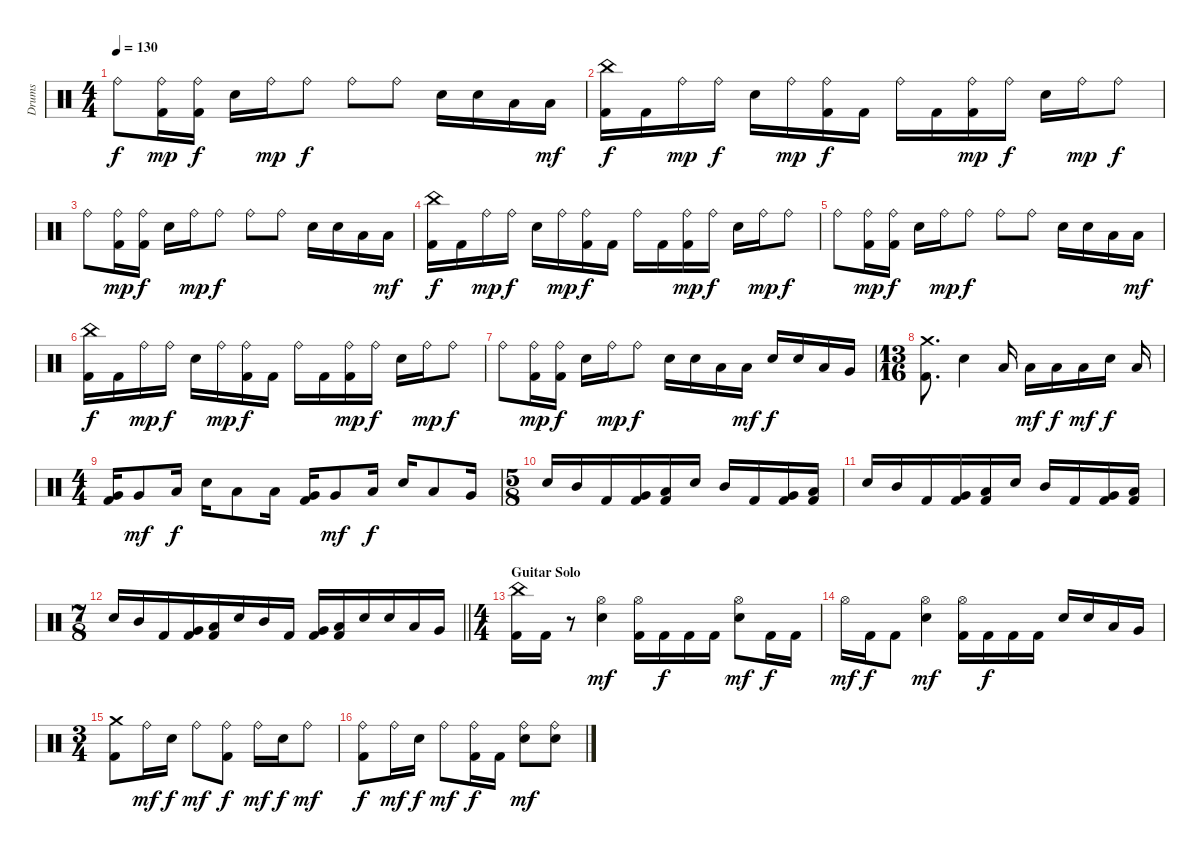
\track ("Drums" "Drums") {instrument percussion}
\staff {score}
\articulation defaults
\ts (4 4)
\tempo 130
\clef neutral
\ks c "Ride (bell)".8{dy f}
("Kick (hit) 2" "Ride (bell)").16{dy mp} ("Kick (hit) 2" "Ride (bell)").16{dy f} "Electric Snare (hit)".16 "Ride (bell)".16{dy mp} "Ride (bell)".8{dy f} "Ride (bell)".8 "Ride (bell)".8 "Electric Snare (hit)".16 "Electric Snare (hit)".16 "Low Tom (hit)".16 "Low Tom (hit)".16{dy mf} |
("Kick (hit) 2" "China (hit)").16{dy f} "Kick (hit) 2".16 "Ride (bell)".16{dy mp} "Ride (bell)".16{dy f} "Electric Snare (hit)".16 "Ride (bell)".16{dy mp} ("Kick (hit) 2" "Ride (bell)").16{dy f} "Kick (hit) 2".16 "Ride (bell)".16 "Kick (hit) 2".16 ("Kick (hit) 2" "Ride (bell)").16{dy mp} "Ride (bell)".16{dy f} "Electric Snare (hit)".16 "Ride (bell)".16{dy mp} "Ride (bell)".8{dy f} |
"Ride (bell)".8 ("Kick (hit) 2" "Ride (bell)").16{dy mp} ("Kick (hit) 2" "Ride (bell)").16{dy f} "Electric Snare (hit)".16 "Ride (bell)".16{dy mp} "Ride (bell)".8{dy f} "Ride (bell)".8 "Ride (bell)".8 "Electric Snare (hit)".16 "Electric Snare (hit)".16 "Low Tom (hit)".16 "Low Tom (hit)".16{dy mf} |
("Kick (hit) 2" "China (hit)").16{dy f} "Kick (hit) 2".16 "Ride (bell)".16{dy mp} "Ride (bell)".16{dy f} "Electric Snare (hit)".16 "Ride (bell)".16{dy mp} ("Kick (hit) 2" "Ride (bell)").16{dy f} "Kick (hit) 2".16 "Ride (bell)".16 "Kick (hit) 2".16 ("Kick (hit) 2" "Ride (bell)").16{dy mp} "Ride (bell)".16{dy f} "Electric Snare (hit)".16 "Ride (bell)".16{dy mp} "Ride (bell)".8{dy f} |
"Ride (bell)".8 ("Kick (hit) 2" "Ride (bell)").16{dy mp} ("Kick (hit) 2" "Ride (bell)").16{dy f} "Electric Snare (hit)".16 "Ride (bell)".16{dy mp} "Ride (bell)".8{dy f} "Ride (bell)".8 "Ride (bell)".8 "Electric Snare (hit)".16 "Electric Snare (hit)".16 "Low Tom (hit)".16 "Low Tom (hit)".16{dy mf} |
("Kick (hit) 2" "China (hit)").16{dy f} "Kick (hit) 2".16 "Ride (bell)".16{dy mp} "Ride (bell)".16{dy f} "Electric Snare (hit)".16 "Ride (bell)".16{dy mp} ("Kick (hit) 2" "Ride (bell)").16{dy f} "Kick (hit) 2".16 "Ride (bell)".16 "Kick (hit) 2".16 ("Kick (hit) 2" "Ride (bell)").16{dy mp} "Ride (bell)".16{dy f} "Electric Snare (hit)".16 "Ride (bell)".16{dy mp} "Ride (bell)".8{dy f} |
"Ride (bell)".8 ("Kick (hit) 2" "Ride (bell)").16{dy mp} ("Kick (hit) 2" "Ride (bell)").16{dy f} "Electric Snare (hit)".16 "Ride (bell)".16{dy mp} "Ride (bell)".8{dy f} "Electric Snare (hit)".16 "Electric Snare (hit)".16 "Low Tom (hit)".16 "Low Tom (hit)".16{dy mf} "Electric Snare (hit)".16{dy f} "Electric Snare (hit)".16 "Low Tom (hit)".16 "Very Low Tom (hit)".16 |
\ts (13 16)
("Kick (hit) 2" "Crash medium (hit)").8{d} "Electric Snare (hit)".4 "Low Tom (hit)".16 "Low Tom (hit)".16{dy mf} "Low Tom (hit)".16{dy f} "Low Tom (hit)".16{dy mf} "Electric Snare (hit)".16{dy f} "Low Tom (hit)".16 |
\ts (4 4)
("Kick (hit) 2" "Very Low Tom (hit)").16 "Very Low Tom (hit)".8{dy mf} "Low Tom (hit)".16{dy f} "Electric Snare (hit)".16 "Low Tom (hit)".8 "Low Tom (hit)".16 ("Kick (hit) 2" "Very Low Tom (hit)").16 "Very Low Tom (hit)".8{dy mf} "Low Tom (hit)".16{dy f} "Electric Snare (hit)".16 "Low Tom (hit)".8 "Very Low Tom (hit)".16 |
\ts (5 8)
"Electric Snare (hit)".16 "Mid Tom (hit)".16 "Kick (hit) 2".16 ("Kick (hit) 2" "Very Low Tom (hit)").16 ("Kick (hit) 2" "Low Floor Tom (hit)").16 "Electric Snare (hit)".16 "Mid Tom (hit)".16 "Kick (hit) 2".16 ("Kick (hit) 2" "Very Low Tom (hit)").16 ("Kick (hit) 2" "Low Floor Tom (hit)").16 |
"Electric Snare (hit)".16 "Mid Tom (hit)".16 "Kick (hit) 2".16 ("Kick (hit) 2" "Very Low Tom (hit)").16 ("Kick (hit) 2" "Low Floor Tom (hit)").16 "Electric Snare (hit)".16 "Mid Tom (hit)".16 "Kick (hit) 2".16 ("Kick (hit) 2" "Very Low Tom (hit)").16 ("Kick (hit) 2" "Low Floor Tom (hit)").16 |
\ts (7 8)
\barLineRight lightlight "Electric Snare (hit)".16 "Mid Tom (hit)".16 "Kick (hit) 2".16
("Kick (hit) 2" "Very Low Tom (hit)").16 ("Kick (hit) 2" "Low Floor Tom (hit)").16 "Electric Snare (hit)".16 "Mid Tom (hit)".16 "Kick (hit) 2".16 ("Kick (hit) 2" "Very Low Tom (hit)").16 ("Kick (hit) 2" "Low Floor Tom (hit)").16 "Electric Snare (hit)".16 "Electric Snare (hit)".16 "Low Tom (hit)".16 "Very Low Tom (hit)".16 |
\ts (4 4)
\section ("" "Guitar Solo")
("Kick (hit) 2" "China (hit)").16 "Kick (hit) 2".16 r.8 ("Hi-Hat (open)" "Electric Snare (hit)").4{dy mf} ("Kick (hit) 2" "Hi-Hat (open)").16 "Kick (hit) 2".16{dy f} "Kick (hit) 2".16 "Kick (hit) 2".16 ("Hi-Hat (open)" "Electric Snare (hit)").8{dy mf} "Kick (hit) 2".16{dy f} "Kick (hit) 2".16 |
"Hi-Hat (open)".16{dy mf} "Kick (hit) 2".16{dy f} "Kick (hit) 2".8 ("Hi-Hat (open)" "Electric Snare (hit)").4{dy mf} ("Kick (hit) 2" "Hi-Hat (open)").16 "Kick (hit) 2".16{dy f} "Kick (hit) 2".16 "Kick (hit) 2".16 "Electric Snare (hit)".16 "Electric Snare (hit)".16 "Low Tom (hit)".16 "Very Low Tom (hit)".16 |
\ts (3 4)
("Kick (hit) 2" "Crash medium (hit)").8 "Ride (bell)".16{dy mf} "Electric Snare (hit)".16{dy f} "Ride (bell)".8{dy mf} ("Kick (hit) 2" "Ride (bell)").8{dy f} "Ride (bell)".16{dy mf} "Electric Snare (hit)".16{dy f} "Ride (bell)".8{dy mf} |
("Kick (hit) 2" "Ride (bell)").8{dy f} "Ride (bell)".16{dy mf} "Electric Snare (hit)".16{dy f} "Ride (bell)".8{dy mf} ("Kick (hit) 2" "Ride (bell)").16{dy f} "Kick (hit) 2".16 ("Ride (bell)" "Electric Snare (hit)").8{dy mf} ("Ride (bell)" "Electric Snare (hit)").8
